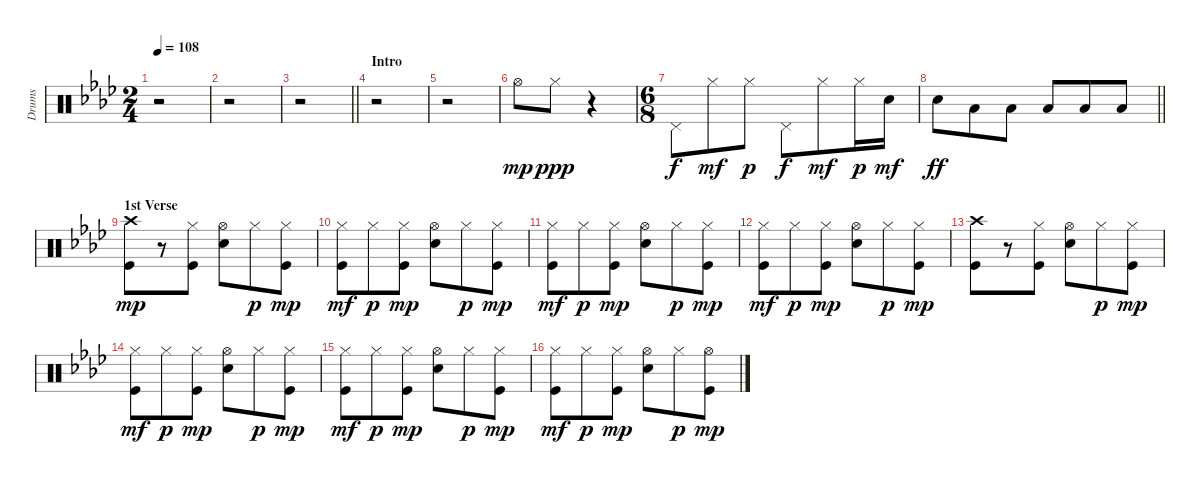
\track ("Drums" "Drums") {instrument percussion}
\staff {score}
\articulation defaults
\ts (2 4)
\tempo 108
\clef neutral
\ks ab
r.2{dy mp} |
r.2 |
\barLineRight lightlight
r.2 |
\section ("" "Intro")
r.2 |
r.2 |
"Hi-Hat (open)".8 "Hi-Hat (closed)".8{dy ppp} r.4 |
\ts (6 8)
"Pedal Hi-Hat (hit)".8{dy f} "Hi-Hat (closed)".8{dy mf} "Hi-Hat (closed)".8{dy p} "Pedal Hi-Hat (hit)".8{dy f} "Hi-Hat (closed)".8{dy mf} "Hi-Hat (closed)".16{dy p} "Electric Snare (hit)".16{dy mf} |
\barLineRight lightlight "Electric Snare (hit)".8{dy ff} "Low Tom (hit)".8 "Low Tom (hit)".8 "Low Floor Tom (hit)".8 "Low Floor Tom (hit)".8 "Low Floor Tom (hit)".8
|
\section ("" "1st Verse")
("Kick (hit)" "Crash high (hit)").8{dy mp} r.8 ("Kick (hit)" "Hi-Hat (closed)").8 ("Electric Snare (hit)" "Hi-Hat (open)").8 "Hi-Hat (closed)".8{dy p} ("Kick (hit)" "Hi-Hat (closed)").8{dy mp} |
("Kick (hit)" "Hi-Hat (closed)").8{dy mf} "Hi-Hat (closed)".8{dy p} ("Kick (hit)" "Hi-Hat (closed)").8{dy mp} ("Electric Snare (hit)" "Hi-Hat (open)").8 "Hi-Hat (closed)".8{dy p} ("Kick (hit)" "Hi-Hat (closed)").8{dy mp} |
("Kick (hit)" "Hi-Hat (closed)").8{dy mf} "Hi-Hat (closed)".8{dy p} ("Kick (hit)" "Hi-Hat (closed)").8{dy mp} ("Electric Snare (hit)" "Hi-Hat (open)").8 "Hi-Hat (closed)".8{dy p} ("Kick (hit)" "Hi-Hat (closed)").8{dy mp} |
("Kick (hit)" "Hi-Hat (closed)").8{dy mf} "Hi-Hat (closed)".8{dy p} ("Kick (hit)" "Hi-Hat (closed)").8{dy mp} ("Electric Snare (hit)" "Hi-Hat (open)").8 "Hi-Hat (closed)".8{dy p} ("Kick (hit)" "Hi-Hat (closed)").8{dy mp} |
("Kick (hit)" "Crash high (hit)").8 r.8 ("Kick (hit)" "Hi-Hat (closed)").8 ("Electric Snare (hit)" "Hi-Hat (open)").8 "Hi-Hat (closed)".8{dy p} ("Kick (hit)" "Hi-Hat (closed)").8{dy mp} |
("Kick (hit)" "Hi-Hat (closed)").8{dy mf} "Hi-Hat (closed)".8{dy p} ("Kick (hit)" "Hi-Hat (closed)").8{dy mp} ("Electric Snare (hit)" "Hi-Hat (open)").8 "Hi-Hat (closed)".8{dy p} ("Kick (hit)" "Hi-Hat (closed)").8{dy mp} |
("Kick (hit)" "Hi-Hat (closed)").8{dy mf} "Hi-Hat (closed)".8{dy p} ("Kick (hit)" "Hi-Hat (closed)").8{dy mp} ("Electric Snare (hit)" "Hi-Hat (open)").8 "Hi-Hat (closed)".8{dy p} ("Kick (hit)" "Hi-Hat (closed)").8{dy mp} |
("Kick (hit)" "Hi-Hat (closed)").8{dy mf} "Hi-Hat (closed)".8{dy p} ("Kick (hit)" "Hi-Hat (closed)").8{dy mp} ("Electric Snare (hit)" "Hi-Hat (open)").8 "Hi-Hat (closed)".8{dy p} ("Kick (hit)" "Hi-Hat (open)").8{dy mp}
